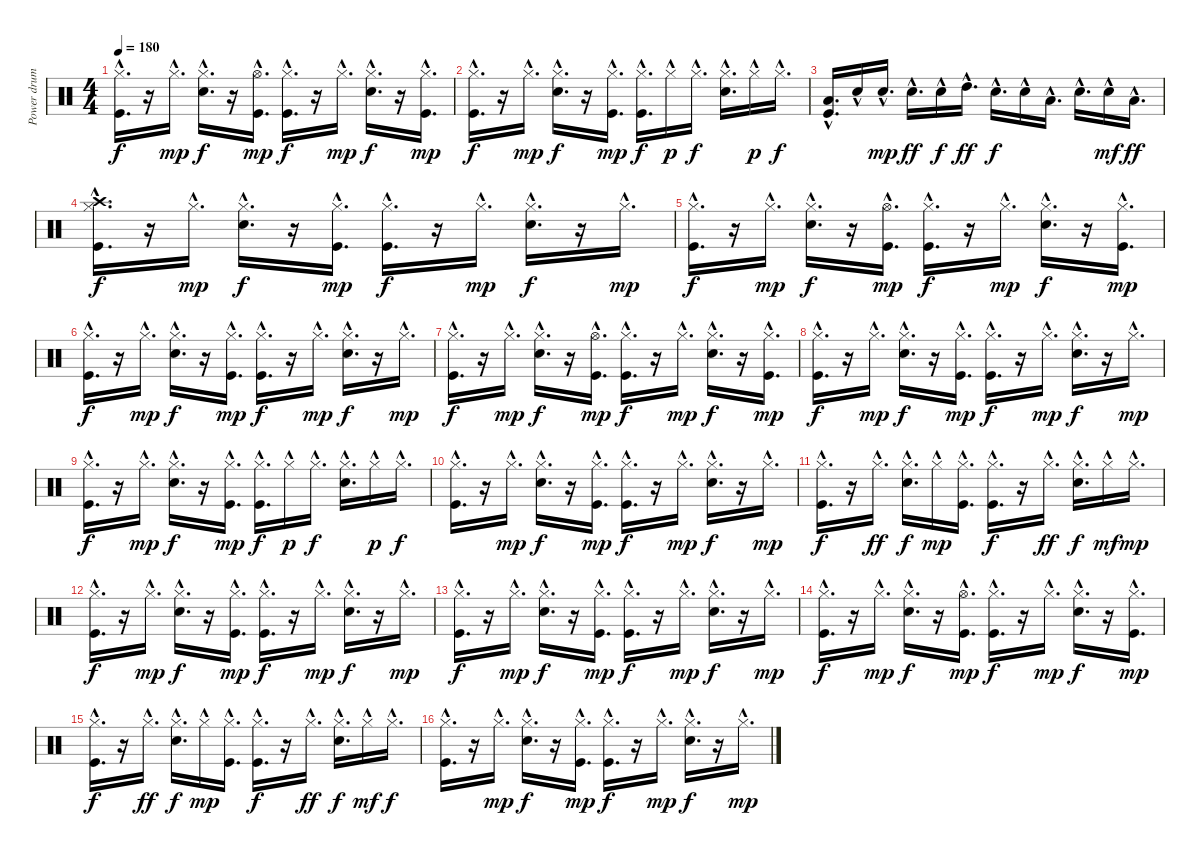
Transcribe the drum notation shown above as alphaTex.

\track ("Power drum" "Power drum") {instrument percussion}
\staff {score}
\articulation defaults
\ts (4 4)
\tempo 180
\clef neutral
\ks c
("Kick (hit)"{hac} "Hi-Hat (closed)"{hac}).16{d dy f} r.16 "Hi-Hat (closed)"{hac}.16{d dy mp} ("Snare (hit) 2"{hac} "Hi-Hat (closed)"{hac}).16{d dy f} r.16 ("Kick (hit)"{hac} "Hi-Hat (open)"{hac}).16{d dy mp} ("Kick (hit)"{hac} "Hi-Hat (closed)"{hac}).16{d dy f} r.16 "Hi-Hat (closed)"{hac}.16{d dy mp} ("Snare (hit) 2"{hac} "Hi-Hat (closed)"{hac}).16{d dy f} r.16 ("Kick (hit)"{hac} "Hi-Hat (closed)"{hac}).16{d dy mp} |
("Kick (hit)"{hac} "Hi-Hat (closed)"{hac}).16{d dy f} r.16 "Hi-Hat (closed)"{hac}.16{d dy mp} ("Snare (hit) 2"{hac} "Hi-Hat (closed)"{hac}).16{d dy f} r.16 ("Kick (hit)"{hac} "Hi-Hat (closed)"{hac}).16{d dy mp} ("Kick (hit)"{hac} "Hi-Hat (closed)"{hac}).16{d dy f} "Hi-Hat (closed)"{hac}.16{dy p} "Hi-Hat (closed)"{hac}.16{d dy f} ("Snare (hit) 2"{hac} "Hi-Hat (closed)"{hac}).16{d} "Hi-Hat (closed)"{hac}.16{dy p} "Hi-Hat (closed)"{hac}.16{d dy f} |
("Kick (hit)"{hac} "Low Tom (hit)"{hac}).16{d} "Snare (hit) 2"{hac}.16 "Snare (hit) 2"{hac}.16{d dy mp} "Snare (hit) 2"{hac}.16{d dy ff} "Snare (hit) 2"{hac}.16{dy f} "High Tom (hit)"{hac}.16{d dy ff} "Snare (hit) 2"{hac}.16{d dy f} "Snare (hit) 2"{hac}.16 "Low Tom (hit)"{hac}.16{d} "Snare (hit) 2"{hac}.16{d} "Snare (hit) 2"{hac}.16{dy mf} "Low Floor Tom (hit)"{hac}.16{d dy ff} |
("Kick (hit)"{hac} "Hi-Hat (closed)"{hac} "Crash high (hit)"{hac}).16{d dy f} r.16 "Hi-Hat (closed)"{hac}.16{d dy mp} ("Snare (hit) 2"{hac} "Hi-Hat (closed)"{hac}).16{d dy f} r.16 ("Kick (hit)"{hac} "Hi-Hat (closed)"{hac}).16{d dy mp} ("Kick (hit)"{hac} "Hi-Hat (closed)"{hac}).16{d dy f} r.16 "Hi-Hat (closed)"{hac}.16{d dy mp} ("Snare (hit) 2"{hac} "Hi-Hat (closed)"{hac}).16{d dy f} r.16 "Hi-Hat (closed)"{hac}.16{d dy mp} |
("Kick (hit)"{hac} "Hi-Hat (closed)"{hac}).16{d dy f} r.16 "Hi-Hat (closed)"{hac}.16{d dy mp} ("Snare (hit) 2"{hac} "Hi-Hat (closed)"{hac}).16{d dy f} r.16 ("Kick (hit)"{hac} "Hi-Hat (open)"{hac}).16{d dy mp} ("Kick (hit)"{hac} "Hi-Hat (closed)"{hac}).16{d dy f} r.16 "Hi-Hat (closed)"{hac}.16{d dy mp} ("Snare (hit) 2"{hac} "Hi-Hat (closed)"{hac}).16{d dy f} r.16 ("Kick (hit)"{hac} "Hi-Hat (closed)"{hac}).16{d dy mp} |
("Kick (hit)"{hac} "Hi-Hat (closed)"{hac}).16{d dy f} r.16 "Hi-Hat (closed)"{hac}.16{d dy mp} ("Snare (hit) 2"{hac} "Hi-Hat (closed)"{hac}).16{d dy f} r.16 ("Kick (hit)"{hac} "Hi-Hat (closed)"{hac}).16{d dy mp} ("Kick (hit)"{hac} "Hi-Hat (closed)"{hac}).16{d dy f} r.16 "Hi-Hat (closed)"{hac}.16{d dy mp} ("Snare (hit) 2"{hac} "Hi-Hat (closed)"{hac}).16{d dy f} r.16 "Hi-Hat (closed)"{hac}.16{d dy mp} |
("Kick (hit)"{hac} "Hi-Hat (closed)"{hac}).16{d dy f} r.16 "Hi-Hat (closed)"{hac}.16{d dy mp} ("Snare (hit) 2"{hac} "Hi-Hat (closed)"{hac}).16{d dy f} r.16 ("Kick (hit)"{hac} "Hi-Hat (open)"{hac}).16{d dy mp} ("Kick (hit)"{hac} "Hi-Hat (closed)"{hac}).16{d dy f} r.16 "Hi-Hat (closed)"{hac}.16{d dy mp} ("Snare (hit) 2"{hac} "Hi-Hat (closed)"{hac}).16{d dy f} r.16 ("Kick (hit)"{hac} "Hi-Hat (closed)"{hac}).16{d dy mp} |
("Kick (hit)"{hac} "Hi-Hat (closed)"{hac}).16{d dy f} r.16 "Hi-Hat (closed)"{hac}.16{d dy mp} ("Snare (hit) 2"{hac} "Hi-Hat (closed)"{hac}).16{d dy f} r.16 ("Kick (hit)"{hac} "Hi-Hat (closed)"{hac}).16{d dy mp} ("Kick (hit)"{hac} "Hi-Hat (closed)"{hac}).16{d dy f} r.16 "Hi-Hat (closed)"{hac}.16{d dy mp} ("Snare (hit) 2"{hac} "Hi-Hat (closed)"{hac}).16{d dy f} r.16 "Hi-Hat (closed)"{hac}.16{d dy mp} |
("Kick (hit)"{hac} "Hi-Hat (closed)"{hac}).16{d dy f} r.16 "Hi-Hat (closed)"{hac}.16{d dy mp} ("Snare (hit) 2"{hac} "Hi-Hat (closed)"{hac}).16{d dy f} r.16 ("Kick (hit)"{hac} "Hi-Hat (closed)"{hac}).16{d dy mp} ("Kick (hit)"{hac} "Hi-Hat (closed)"{hac}).16{d dy f} "Hi-Hat (closed)"{hac}.16{dy p} "Hi-Hat (closed)"{hac}.16{d dy f} ("Snare (hit) 2"{hac} "Hi-Hat (closed)"{hac}).16{d} "Hi-Hat (closed)"{hac}.16{dy p} "Hi-Hat (closed)"{hac}.16{d dy f} |
("Kick (hit)"{hac} "Hi-Hat (closed)"{hac}).16{d} r.16 "Hi-Hat (closed)"{hac}.16{d dy mp} ("Snare (hit) 2"{hac} "Hi-Hat (closed)"{hac}).16{d dy f} r.16 ("Kick (hit)"{hac} "Hi-Hat (closed)"{hac}).16{d dy mp} ("Kick (hit)"{hac} "Hi-Hat (closed)"{hac}).16{d dy f} r.16 "Hi-Hat (closed)"{hac}.16{d dy mp} ("Snare (hit) 2"{hac} "Hi-Hat (closed)"{hac}).16{d dy f} r.16 "Hi-Hat (closed)"{hac}.16{d dy mp} |
("Kick (hit)"{hac} "Hi-Hat (closed)"{hac}).16{d dy f} r.16 "Hi-Hat (closed)"{hac}.16{d dy ff} ("Snare (hit) 2"{hac} "Hi-Hat (closed)"{hac}).16{d dy f} "Hi-Hat (closed)"{hac}.16{dy mp} ("Kick (hit)"{hac} "Hi-Hat (closed)"{hac}).16{d} ("Kick (hit)"{hac} "Hi-Hat (closed)"{hac}).16{d dy f} r.16 "Hi-Hat (closed)"{hac}.16{d dy ff} ("Snare (hit) 2"{hac} "Hi-Hat (closed)"{hac}).16{d dy f} "Hi-Hat (closed)"{hac}.16{dy mf} "Hi-Hat (closed)"{hac}.16{d dy mp} |
("Kick (hit)"{hac} "Hi-Hat (closed)"{hac}).16{d dy f} r.16 "Hi-Hat (closed)"{hac}.16{d dy mp} ("Snare (hit) 2"{hac} "Hi-Hat (closed)"{hac}).16{d dy f} r.16 ("Kick (hit)"{hac} "Hi-Hat (closed)"{hac}).16{d dy mp} ("Kick (hit)"{hac} "Hi-Hat (closed)"{hac}).16{d dy f} r.16 "Hi-Hat (closed)"{hac}.16{d dy mp} ("Snare (hit) 2"{hac} "Hi-Hat (closed)"{hac}).16{d dy f} r.16 "Hi-Hat (closed)"{hac}.16{d dy mp} |
("Kick (hit)"{hac} "Hi-Hat (closed)"{hac}).16{d dy f} r.16 "Hi-Hat (closed)"{hac}.16{d dy mp} ("Snare (hit) 2"{hac} "Hi-Hat (closed)"{hac}).16{d dy f} r.16 ("Kick (hit)"{hac} "Hi-Hat (closed)"{hac}).16{d dy mp} ("Kick (hit)"{hac} "Hi-Hat (closed)"{hac}).16{d dy f} r.16 "Hi-Hat (closed)"{hac}.16{d dy mp} ("Snare (hit) 2"{hac} "Hi-Hat (closed)"{hac}).16{d dy f} r.16 "Hi-Hat (closed)"{hac}.16{d dy mp} |
("Kick (hit)"{hac} "Hi-Hat (closed)"{hac}).16{d dy f} r.16 "Hi-Hat (closed)"{hac}.16{d dy mp} ("Snare (hit) 2"{hac} "Hi-Hat (closed)"{hac}).16{d dy f} r.16 ("Kick (hit)"{hac} "Hi-Hat (open)"{hac}).16{d dy mp} ("Kick (hit)"{hac} "Hi-Hat (closed)"{hac}).16{d dy f} r.16 "Hi-Hat (closed)"{hac}.16{d dy mp} ("Snare (hit) 2"{hac} "Hi-Hat (closed)"{hac}).16{d dy f} r.16 ("Kick (hit)"{hac} "Hi-Hat (closed)"{hac}).16{d dy mp} |
("Kick (hit)"{hac} "Hi-Hat (closed)"{hac}).16{d dy f} r.16 "Hi-Hat (closed)"{hac}.16{d dy ff} ("Snare (hit) 2"{hac} "Hi-Hat (closed)"{hac}).16{d dy f} "Hi-Hat (closed)"{hac}.16{dy mp} ("Kick (hit)"{hac} "Hi-Hat (closed)"{hac}).16{d} ("Kick (hit)"{hac} "Hi-Hat (closed)"{hac}).16{d dy f} r.16 "Hi-Hat (closed)"{hac}.16{d dy ff} ("Snare (hit) 2"{hac} "Hi-Hat (closed)"{hac}).16{d dy f} "Hi-Hat (closed)"{hac}.16{dy mf} "Hi-Hat (closed)"{hac}.16{d dy f} |
("Kick (hit)"{hac} "Hi-Hat (closed)"{hac}).16{d} r.16 "Hi-Hat (closed)"{hac}.16{d dy mp} ("Snare (hit) 2"{hac} "Hi-Hat (closed)"{hac}).16{d dy f} r.16 ("Kick (hit)"{hac} "Hi-Hat (closed)"{hac}).16{d dy mp} ("Kick (hit)"{hac} "Hi-Hat (closed)"{hac}).16{d dy f} r.16 "Hi-Hat (closed)"{hac}.16{d dy mp} ("Snare (hit) 2"{hac} "Hi-Hat (closed)"{hac}).16{d dy f} r.16 "Hi-Hat (closed)"{hac}.16{d dy mp}
